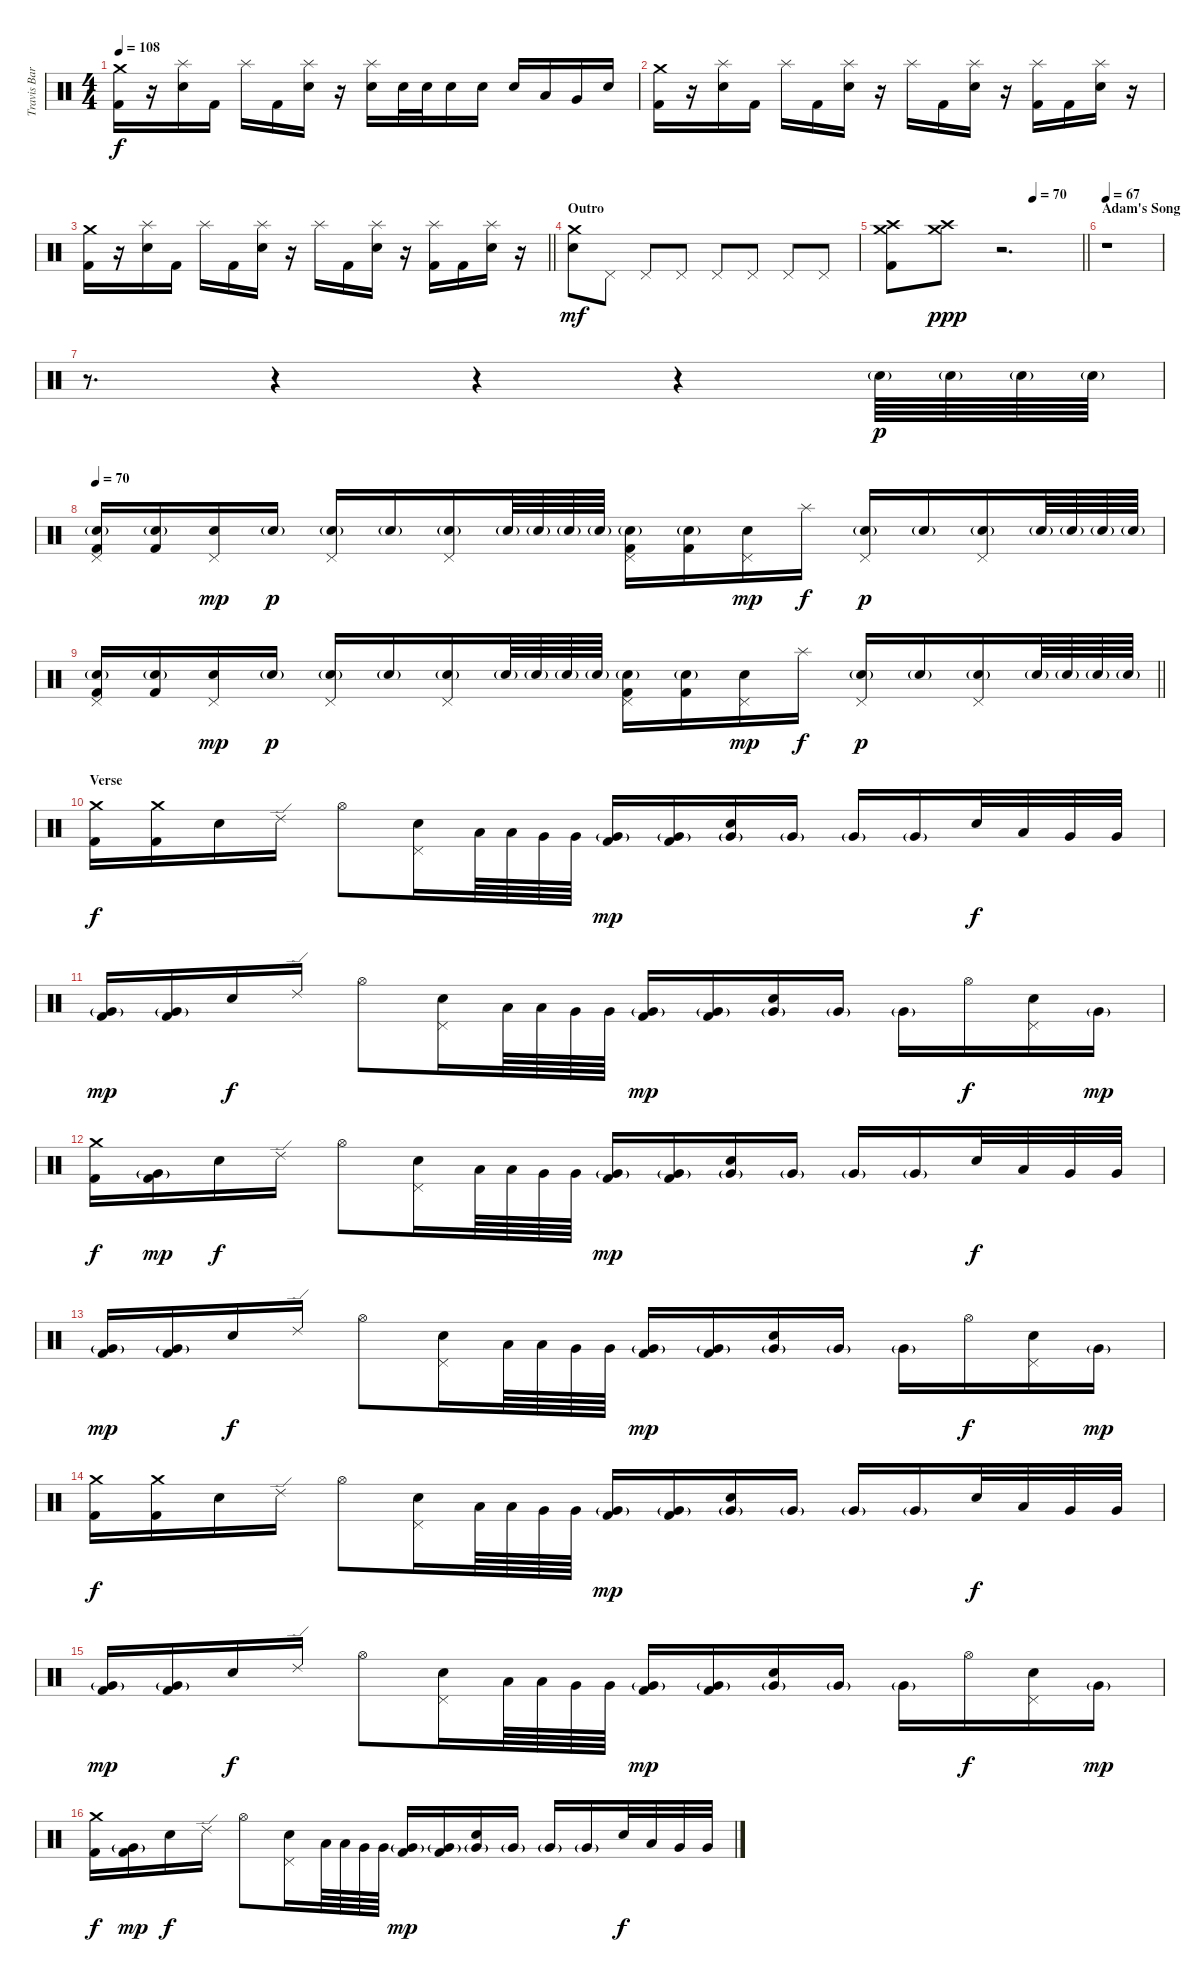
\track ("Travis Barker" "Travis Bar") {instrument percussion}
\staff {score}
\articulation defaults
\ts (4 4)
\tempo 108
\clef neutral
\ks c
("Crash medium (hit)" "Kick (hit) 2").16{dy f} r.16 ("Splash (hit)" "Electric Snare (hit)").16 "Kick (hit) 2".16 "Splash (hit)".16 "Kick (hit) 2".16 ("Splash (hit)" "Electric Snare (hit)").16 r.16 ("Splash (hit)" "Electric Snare (hit)").16 "Electric Snare (hit)".32 "Electric Snare (hit)".32 "Electric Snare (hit)".16 "Electric Snare (hit)".16 "Electric Snare (hit)".16 "Low Tom (hit)".16 "Very Low Tom (hit)".16 "Electric Snare (hit)".16 |
("Crash medium (hit)" "Kick (hit) 2").16 r.16 ("Splash (hit)" "Electric Snare (hit)").16 "Kick (hit) 2".16 "Splash (hit)".16 "Kick (hit) 2".16 ("Splash (hit)" "Electric Snare (hit)").16 r.16 "Splash (hit)".16 "Kick (hit) 2".16 ("Splash (hit)" "Electric Snare (hit)").16 r.16 ("Splash (hit)" "Kick (hit) 2").16 "Kick (hit) 2".16 ("Splash (hit)" "Electric Snare (hit)").16 r.16 |
\barLineRight lightlight
("Crash medium (hit)" "Kick (hit) 2").16 r.16 ("Splash (hit)" "Electric Snare (hit)").16 "Kick (hit) 2".16 "Splash (hit)".16 "Kick (hit) 2".16 ("Splash (hit)" "Electric Snare (hit)").16 r.16 "Splash (hit)".16 "Kick (hit) 2".16 ("Splash (hit)" "Electric Snare (hit)").16 r.16 ("Splash (hit)" "Kick (hit) 2").16 "Kick (hit) 2".16 ("Splash (hit)" "Electric Snare (hit)").16 r.16 |
\section ("" "Outro")
("Crash medium (hit)" "Electric Snare (hit)").8{dy mf} "Pedal Hi-Hat (hit)".8 "Pedal Hi-Hat (hit)".8 "Pedal Hi-Hat (hit)".8 "Pedal Hi-Hat (hit)".8 "Pedal Hi-Hat (hit)".8 "Pedal Hi-Hat (hit)".8 "Pedal Hi-Hat (hit)".8 |
\tempo (70 0.75)
\barLineRight lightlight
("Crash medium (hit)" "Crash high (hit)" "Kick (hit) 2").8 ("Crash medium (hit)" "Crash high (hit)").8{dy ppp} r.2{d} |
\section ("" "Adam's Song")
\tempo 67
r.1 |
r.8{d} r.4 r.4 r.4 "Electric Snare (hit)"{g}.64{dy p} "Electric Snare (hit)"{g}.64 "Electric Snare (hit)"{g}.64 "Electric Snare (hit)"{g}.64 |
\tempo 70
("Pedal Hi-Hat (hit)" "Electric Snare (hit)"{g} "Kick (hit) 2").16 ("Electric Snare (hit)"{g} "Kick (hit) 2").16 ("Pedal Hi-Hat (hit)" "Electric Snare (hit)").16{dy mp} "Electric Snare (hit)"{g}.16{dy p} ("Pedal Hi-Hat (hit)" "Electric Snare (hit)"{g}).16 "Electric Snare (hit)"{g}.16 ("Pedal Hi-Hat (hit)" "Electric Snare (hit)"{g}).16 "Electric Snare (hit)"{g}.64 "Electric Snare (hit)"{g}.64 "Electric Snare (hit)"{g}.64 "Electric Snare (hit)"{g}.64 ("Pedal Hi-Hat (hit)" "Electric Snare (hit)"{g} "Kick (hit) 2").16 ("Electric Snare (hit)"{g} "Kick (hit) 2").16 ("Pedal Hi-Hat (hit)" "Electric Snare (hit)").16{dy mp} "Splash (hit)".16{dy f} ("Pedal Hi-Hat (hit)" "Electric Snare (hit)"{g}).16{dy p} "Electric Snare (hit)"{g}.16 ("Pedal Hi-Hat (hit)" "Electric Snare (hit)"{g}).16 "Electric Snare (hit)"{g}.64 "Electric Snare (hit)"{g}.64 "Electric Snare (hit)"{g}.64 "Electric Snare (hit)"{g}.64 |
\barLineRight lightlight
("Pedal Hi-Hat (hit)" "Electric Snare (hit)"{g} "Kick (hit) 2").16 ("Electric Snare (hit)"{g} "Kick (hit) 2").16 ("Pedal Hi-Hat (hit)" "Electric Snare (hit)").16{dy mp} "Electric Snare (hit)"{g}.16{dy p} ("Pedal Hi-Hat (hit)" "Electric Snare (hit)"{g}).16 "Electric Snare (hit)"{g}.16 ("Pedal Hi-Hat (hit)" "Electric Snare (hit)"{g}).16 "Electric Snare (hit)"{g}.64 "Electric Snare (hit)"{g}.64 "Electric Snare (hit)"{g}.64 "Electric Snare (hit)"{g}.64 ("Pedal Hi-Hat (hit)" "Electric Snare (hit)"{g} "Kick (hit) 2").16 ("Electric Snare (hit)"{g} "Kick (hit) 2").16 ("Pedal Hi-Hat (hit)" "Electric Snare (hit)").16{dy mp} "Splash (hit)".16{dy f} ("Pedal Hi-Hat (hit)" "Electric Snare (hit)"{g}).16{dy p} "Electric Snare (hit)"{g}.16 ("Pedal Hi-Hat (hit)" "Electric Snare (hit)"{g}).16 "Electric Snare (hit)"{g}.64 "Electric Snare (hit)"{g}.64 "Electric Snare (hit)"{g}.64 "Electric Snare (hit)"{g}.64 |
\section ("" "Verse")
("Crash medium (hit)" "Kick (hit) 2").16{dy f} ("Crash medium (hit)" "Kick (hit) 2").16 "Electric Snare (hit)".16 "Ride (edge) 2".16 "Hi-Hat (open)".8 ("Pedal Hi-Hat (hit)" "Electric Snare (hit)").16 "Low Tom (hit)".64 "Low Tom (hit)".64 "Very Low Tom (hit)".64 "Very Low Tom (hit)".64 ("Very Low Tom (hit)"{g} "Kick (hit) 2").16{dy mp} ("Very Low Tom (hit)"{g} "Kick (hit) 2").16 ("Electric Snare (hit)" "Very Low Tom (hit)"{g}).16 "Very Low Tom (hit)"{g}.16 "Very Low Tom (hit)"{g}.16 "Very Low Tom (hit)"{g}.16 "Electric Snare (hit)".32{dy f} "Low Tom (hit)".32 "Very Low Tom (hit)".32 "Very Low Tom (hit)".32 |
("Very Low Tom (hit)"{g} "Kick (hit) 2").16{dy mp} ("Very Low Tom (hit)"{g} "Kick (hit) 2").16 "Electric Snare (hit)".16{dy f} "Ride (edge) 2".16 "Hi-Hat (open)".8 ("Pedal Hi-Hat (hit)" "Electric Snare (hit)").16 "Low Tom (hit)".64 "Low Tom (hit)".64 "Very Low Tom (hit)".64 "Very Low Tom (hit)".64 ("Very Low Tom (hit)"{g} "Kick (hit) 2").16{dy mp} ("Very Low Tom (hit)"{g} "Kick (hit) 2").16 ("Electric Snare (hit)" "Very Low Tom (hit)"{g}).16 "Very Low Tom (hit)"{g}.16 "Very Low Tom (hit)"{g}.16 "Hi-Hat (open)".16{dy f} ("Pedal Hi-Hat (hit)" "Electric Snare (hit)").16 "Very Low Tom (hit)"{g}.16{dy mp} |
("Crash medium (hit)" "Kick (hit) 2").16{dy f} ("Very Low Tom (hit)"{g} "Kick (hit) 2").16{dy mp} "Electric Snare (hit)".16{dy f} "Ride (edge) 2".16 "Hi-Hat (open)".8 ("Pedal Hi-Hat (hit)" "Electric Snare (hit)").16 "Low Tom (hit)".64 "Low Tom (hit)".64 "Very Low Tom (hit)".64 "Very Low Tom (hit)".64 ("Very Low Tom (hit)"{g} "Kick (hit) 2").16{dy mp} ("Very Low Tom (hit)"{g} "Kick (hit) 2").16 ("Electric Snare (hit)" "Very Low Tom (hit)"{g}).16 "Very Low Tom (hit)"{g}.16 "Very Low Tom (hit)"{g}.16 "Very Low Tom (hit)"{g}.16 "Electric Snare (hit)".32{dy f} "Low Tom (hit)".32 "Very Low Tom (hit)".32 "Very Low Tom (hit)".32 |
("Very Low Tom (hit)"{g} "Kick (hit) 2").16{dy mp} ("Very Low Tom (hit)"{g} "Kick (hit) 2").16 "Electric Snare (hit)".16{dy f} "Ride (edge) 2".16 "Hi-Hat (open)".8 ("Pedal Hi-Hat (hit)" "Electric Snare (hit)").16 "Low Tom (hit)".64 "Low Tom (hit)".64 "Very Low Tom (hit)".64 "Very Low Tom (hit)".64 ("Very Low Tom (hit)"{g} "Kick (hit) 2").16{dy mp} ("Very Low Tom (hit)"{g} "Kick (hit) 2").16 ("Electric Snare (hit)" "Very Low Tom (hit)"{g}).16 "Very Low Tom (hit)"{g}.16 "Very Low Tom (hit)"{g}.16 "Hi-Hat (open)".16{dy f} ("Pedal Hi-Hat (hit)" "Electric Snare (hit)").16 "Very Low Tom (hit)"{g}.16{dy mp} |
("Crash medium (hit)" "Kick (hit) 2").16{dy f} ("Crash medium (hit)" "Kick (hit) 2").16 "Electric Snare (hit)".16 "Ride (edge) 2".16 "Hi-Hat (open)".8 ("Pedal Hi-Hat (hit)" "Electric Snare (hit)").16 "Low Tom (hit)".64 "Low Tom (hit)".64 "Very Low Tom (hit)".64 "Very Low Tom (hit)".64 ("Very Low Tom (hit)"{g} "Kick (hit) 2").16{dy mp} ("Very Low Tom (hit)"{g} "Kick (hit) 2").16 ("Electric Snare (hit)" "Very Low Tom (hit)"{g}).16 "Very Low Tom (hit)"{g}.16 "Very Low Tom (hit)"{g}.16 "Very Low Tom (hit)"{g}.16 "Electric Snare (hit)".32{dy f} "Low Tom (hit)".32 "Very Low Tom (hit)".32 "Very Low Tom (hit)".32 |
("Very Low Tom (hit)"{g} "Kick (hit) 2").16{dy mp} ("Very Low Tom (hit)"{g} "Kick (hit) 2").16 "Electric Snare (hit)".16{dy f} "Ride (edge) 2".16 "Hi-Hat (open)".8 ("Pedal Hi-Hat (hit)" "Electric Snare (hit)").16 "Low Tom (hit)".64 "Low Tom (hit)".64 "Very Low Tom (hit)".64 "Very Low Tom (hit)".64 ("Very Low Tom (hit)"{g} "Kick (hit) 2").16{dy mp} ("Very Low Tom (hit)"{g} "Kick (hit) 2").16 ("Electric Snare (hit)" "Very Low Tom (hit)"{g}).16 "Very Low Tom (hit)"{g}.16 "Very Low Tom (hit)"{g}.16 "Hi-Hat (open)".16{dy f} ("Pedal Hi-Hat (hit)" "Electric Snare (hit)").16 "Very Low Tom (hit)"{g}.16{dy mp} |
("Crash medium (hit)" "Kick (hit) 2").16{dy f} ("Very Low Tom (hit)"{g} "Kick (hit) 2").16{dy mp} "Electric Snare (hit)".16{dy f} "Ride (edge) 2".16 "Hi-Hat (open)".8 ("Pedal Hi-Hat (hit)" "Electric Snare (hit)").16 "Low Tom (hit)".64 "Low Tom (hit)".64 "Very Low Tom (hit)".64 "Very Low Tom (hit)".64 ("Very Low Tom (hit)"{g} "Kick (hit) 2").16{dy mp} ("Very Low Tom (hit)"{g} "Kick (hit) 2").16 ("Electric Snare (hit)" "Very Low Tom (hit)"{g}).16 "Very Low Tom (hit)"{g}.16 "Very Low Tom (hit)"{g}.16 "Very Low Tom (hit)"{g}.16 "Electric Snare (hit)".32{dy f} "Low Tom (hit)".32 "Very Low Tom (hit)".32 "Very Low Tom (hit)".32
